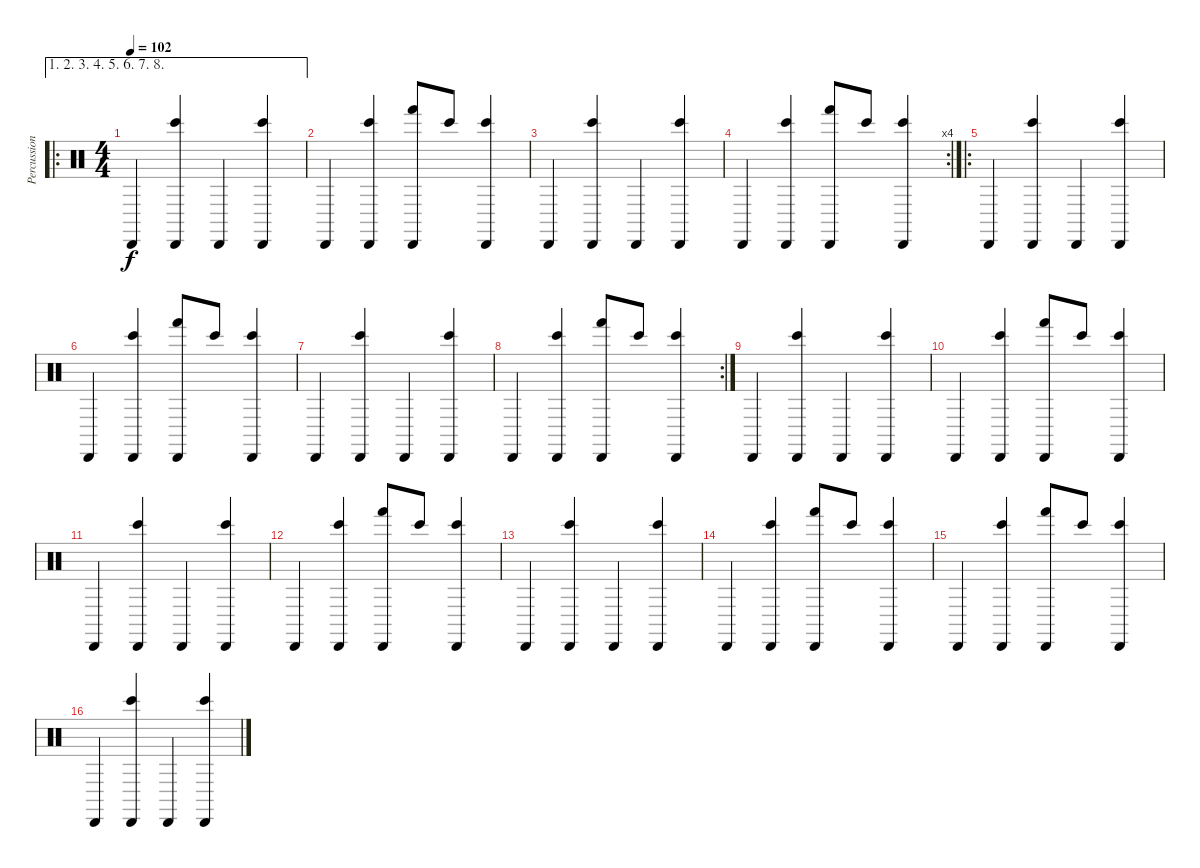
\track ("Percussions" "Percussion") {instrument percussion}
\staff {score}
\articulation defaults
\ae (1 2 3 4 5 6 7 8)
\ro
\ts (4 4)
\tempo 102
\clef neutral
\ks c "Cabasa (hit)".4{dy f}
("Cabasa (hit)" "Bongo High (hit)").4 "Cabasa (hit)".4 ("Cabasa (hit)" "Bongo High (hit)").4 |
"Cabasa (hit)".4 ("Cabasa (hit)" "Bongo High (hit)").4 ("Cabasa (hit)" "Hand (hit)").8 "Bongo High (hit)".8 ("Cabasa (hit)" "Bongo High (hit)").4 |
"Cabasa (hit)".4 ("Cabasa (hit)" "Bongo High (hit)").4 "Cabasa (hit)".4 ("Cabasa (hit)" "Bongo High (hit)").4 |
\rc 4 "Cabasa (hit)".4
("Cabasa (hit)" "Bongo High (hit)").4 ("Cabasa (hit)" "Hand (hit)").8 "Bongo High (hit)".8 ("Cabasa (hit)" "Bongo High (hit)").4 |
\ro "Cabasa (hit)".4
("Cabasa (hit)" "Bongo High (hit)").4 "Cabasa (hit)".4 ("Cabasa (hit)" "Bongo High (hit)").4 |
"Cabasa (hit)".4 ("Cabasa (hit)" "Bongo High (hit)").4 ("Cabasa (hit)" "Hand (hit)").8 "Bongo High (hit)".8 ("Cabasa (hit)" "Bongo High (hit)").4 |
"Cabasa (hit)".4 ("Cabasa (hit)" "Bongo High (hit)").4 "Cabasa (hit)".4 ("Cabasa (hit)" "Bongo High (hit)").4 |
\rc 2 "Cabasa (hit)".4
("Cabasa (hit)" "Bongo High (hit)").4 ("Cabasa (hit)" "Hand (hit)").8 "Bongo High (hit)".8 ("Cabasa (hit)" "Bongo High (hit)").4 |
"Cabasa (hit)".4 ("Cabasa (hit)" "Bongo High (hit)").4 "Cabasa (hit)".4 ("Cabasa (hit)" "Bongo High (hit)").4 |
"Cabasa (hit)".4 ("Cabasa (hit)" "Bongo High (hit)").4 ("Cabasa (hit)" "Hand (hit)").8 "Bongo High (hit)".8 ("Cabasa (hit)" "Bongo High (hit)").4 |
"Cabasa (hit)".4 ("Cabasa (hit)" "Bongo High (hit)").4 "Cabasa (hit)".4 ("Cabasa (hit)" "Bongo High (hit)").4 |
"Cabasa (hit)".4 ("Cabasa (hit)" "Bongo High (hit)").4 ("Cabasa (hit)" "Hand (hit)").8 "Bongo High (hit)".8 ("Cabasa (hit)" "Bongo High (hit)").4 |
"Cabasa (hit)".4 ("Cabasa (hit)" "Bongo High (hit)").4 "Cabasa (hit)".4 ("Cabasa (hit)" "Bongo High (hit)").4 |
"Cabasa (hit)".4 ("Cabasa (hit)" "Bongo High (hit)").4 ("Cabasa (hit)" "Hand (hit)").8 "Bongo High (hit)".8 ("Cabasa (hit)" "Bongo High (hit)").4 |
"Cabasa (hit)".4 ("Cabasa (hit)" "Bongo High (hit)").4 ("Cabasa (hit)" "Hand (hit)").8 "Bongo High (hit)".8 ("Cabasa (hit)" "Bongo High (hit)").4 |
"Cabasa (hit)".4 ("Cabasa (hit)" "Bongo High (hit)").4 "Cabasa (hit)".4 ("Cabasa (hit)" "Bongo High (hit)").4
